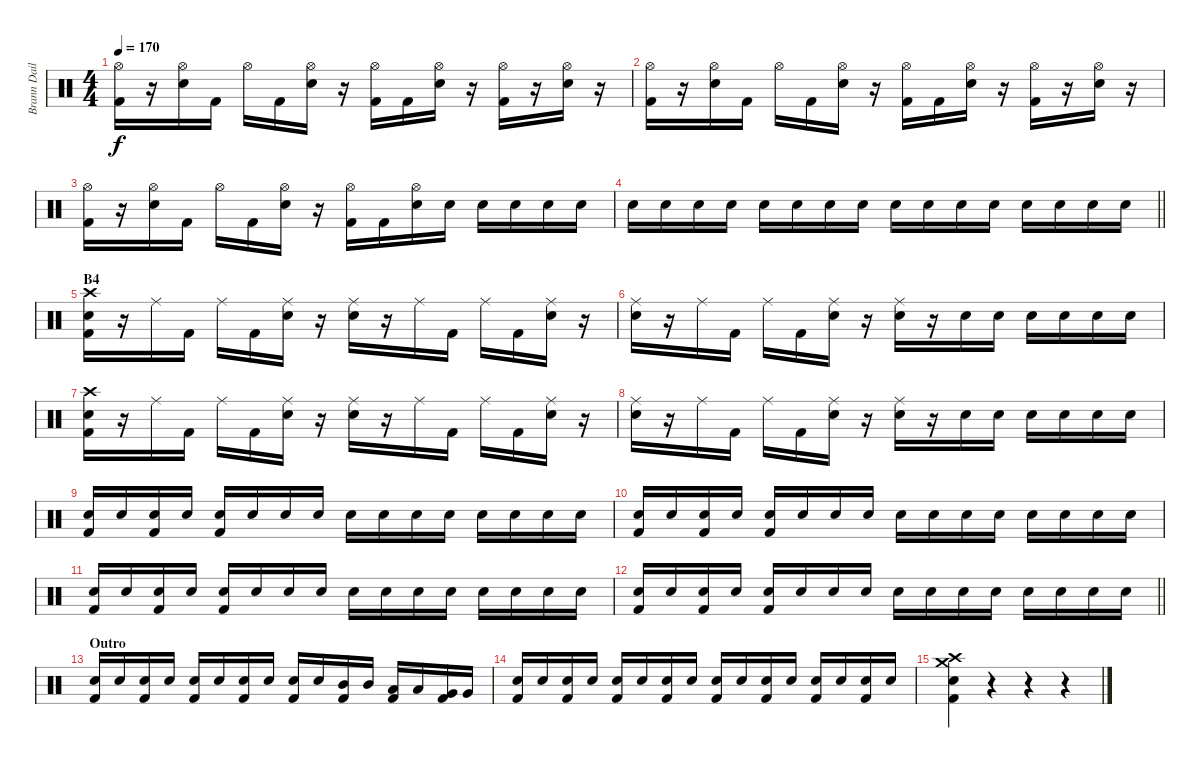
\track ("Brann Dailor" "Brann Dail") {instrument percussion}
\staff {score}
\articulation defaults
\ts (4 4)
\tempo 170
\clef neutral
\ks c
("Hi-Hat (open)" "Kick (hit) 2").16{dy f} r.16 ("Hi-Hat (open)" "Electric Snare (hit)").16 "Kick (hit) 2".16 "Hi-Hat (open)".16 "Kick (hit) 2".16 ("Hi-Hat (open)" "Electric Snare (hit)").16 r.16 ("Hi-Hat (open)" "Kick (hit) 2").16 "Kick (hit) 2".16 ("Hi-Hat (open)" "Electric Snare (hit)").16 r.16 ("Hi-Hat (open)" "Kick (hit) 2").16 r.16 ("Hi-Hat (open)" "Electric Snare (hit)").16 r.16 |
("Hi-Hat (open)" "Kick (hit) 2").16 r.16 ("Hi-Hat (open)" "Electric Snare (hit)").16 "Kick (hit) 2".16 "Hi-Hat (open)".16 "Kick (hit) 2".16 ("Hi-Hat (open)" "Electric Snare (hit)").16 r.16 ("Hi-Hat (open)" "Kick (hit) 2").16 "Kick (hit) 2".16 ("Hi-Hat (open)" "Electric Snare (hit)").16 r.16 ("Hi-Hat (open)" "Kick (hit) 2").16 r.16 ("Hi-Hat (open)" "Electric Snare (hit)").16 r.16 |
("Hi-Hat (open)" "Kick (hit) 2").16 r.16 ("Hi-Hat (open)" "Electric Snare (hit)").16 "Kick (hit) 2".16 "Hi-Hat (open)".16 "Kick (hit) 2".16 ("Hi-Hat (open)" "Electric Snare (hit)").16 r.16 ("Hi-Hat (open)" "Kick (hit) 2").16 "Kick (hit) 2".16 ("Hi-Hat (open)" "Electric Snare (hit)").16 "Electric Snare (hit)".16 "Electric Snare (hit)".16 "Electric Snare (hit)".16 "Electric Snare (hit)".16 "Electric Snare (hit)".16 |
\barLineRight lightlight "Electric Snare (hit)".16 "Electric Snare (hit)".16 "Electric Snare (hit)".16 "Electric Snare (hit)".16 "Electric Snare (hit)".16 "Electric Snare (hit)".16 "Electric Snare (hit)".16 "Electric Snare (hit)".16 "Electric Snare (hit)".16 "Electric Snare (hit)".16 "Electric Snare (hit)".16 "Electric Snare (hit)".16 "Electric Snare (hit)".16 "Electric Snare (hit)".16 "Electric Snare (hit)".16 "Electric Snare (hit)".16
|
\section ("" "B4")
("Crash high (hit)" "Electric Snare (hit)" "Kick (hit) 2").16 r.16 "Ride (middle)".16 "Kick (hit) 2".16 "Ride (middle)".16 "Kick (hit) 2".16 ("Ride (middle)" "Electric Snare (hit)").16 r.16 ("Ride (middle)" "Electric Snare (hit)").16 r.16 "Ride (middle)".16 "Kick (hit) 2".16 "Ride (middle)".16 "Kick (hit) 2".16 ("Ride (middle)" "Electric Snare (hit)").16 r.16 |
("Ride (middle)" "Electric Snare (hit)").16 r.16 "Ride (middle)".16 "Kick (hit) 2".16 "Ride (middle)".16 "Kick (hit) 2".16 ("Ride (middle)" "Electric Snare (hit)").16 r.16 ("Ride (middle)" "Electric Snare (hit)").16 r.16 "Electric Snare (hit)".16 "Electric Snare (hit)".16 "Electric Snare (hit)".16 "Electric Snare (hit)".16 "Electric Snare (hit)".16 "Electric Snare (hit)".16 |
("Crash high (hit)" "Electric Snare (hit)" "Kick (hit) 2").16 r.16 "Ride (middle)".16 "Kick (hit) 2".16 "Ride (middle)".16 "Kick (hit) 2".16 ("Ride (middle)" "Electric Snare (hit)").16 r.16 ("Ride (middle)" "Electric Snare (hit)").16 r.16 "Ride (middle)".16 "Kick (hit) 2".16 "Ride (middle)".16 "Kick (hit) 2".16 ("Ride (middle)" "Electric Snare (hit)").16 r.16 |
("Ride (middle)" "Electric Snare (hit)").16 r.16 "Ride (middle)".16 "Kick (hit) 2".16 "Ride (middle)".16 "Kick (hit) 2".16 ("Ride (middle)" "Electric Snare (hit)").16 r.16 ("Ride (middle)" "Electric Snare (hit)").16 r.16 "Electric Snare (hit)".16 "Electric Snare (hit)".16 "Electric Snare (hit)".16 "Electric Snare (hit)".16 "Electric Snare (hit)".16 "Electric Snare (hit)".16 |
("Electric Snare (hit)" "Kick (hit) 2").16 "Electric Snare (hit)".16 ("Electric Snare (hit)" "Kick (hit) 2").16 "Electric Snare (hit)".16 ("Electric Snare (hit)" "Kick (hit) 2").16 "Electric Snare (hit)".16 "Electric Snare (hit)".16 "Electric Snare (hit)".16 "Electric Snare (hit)".16 "Electric Snare (hit)".16 "Electric Snare (hit)".16 "Electric Snare (hit)".16 "Electric Snare (hit)".16 "Electric Snare (hit)".16 "Electric Snare (hit)".16 "Electric Snare (hit)".16 |
("Electric Snare (hit)" "Kick (hit) 2").16 "Electric Snare (hit)".16 ("Electric Snare (hit)" "Kick (hit) 2").16 "Electric Snare (hit)".16 ("Electric Snare (hit)" "Kick (hit) 2").16 "Electric Snare (hit)".16 "Electric Snare (hit)".16 "Electric Snare (hit)".16 "Electric Snare (hit)".16 "Electric Snare (hit)".16 "Electric Snare (hit)".16 "Electric Snare (hit)".16 "Electric Snare (hit)".16 "Electric Snare (hit)".16 "Electric Snare (hit)".16 "Electric Snare (hit)".16 |
("Electric Snare (hit)" "Kick (hit) 2").16 "Electric Snare (hit)".16 ("Electric Snare (hit)" "Kick (hit) 2").16 "Electric Snare (hit)".16 ("Electric Snare (hit)" "Kick (hit) 2").16 "Electric Snare (hit)".16 "Electric Snare (hit)".16 "Electric Snare (hit)".16 "Electric Snare (hit)".16 "Electric Snare (hit)".16 "Electric Snare (hit)".16 "Electric Snare (hit)".16 "Electric Snare (hit)".16 "Electric Snare (hit)".16 "Electric Snare (hit)".16 "Electric Snare (hit)".16 |
\barLineRight lightlight
("Electric Snare (hit)" "Kick (hit) 2").16 "Electric Snare (hit)".16 ("Electric Snare (hit)" "Kick (hit) 2").16 "Electric Snare (hit)".16 ("Electric Snare (hit)" "Kick (hit) 2").16 "Electric Snare (hit)".16 "Electric Snare (hit)".16 "Electric Snare (hit)".16 "Electric Snare (hit)".16 "Electric Snare (hit)".16 "Electric Snare (hit)".16 "Electric Snare (hit)".16 "Electric Snare (hit)".16 "Electric Snare (hit)".16 "Electric Snare (hit)".16 "Electric Snare (hit)".16 |
\section ("" "Outro")
("Electric Snare (hit)" "Kick (hit) 2").16 "Electric Snare (hit)".16 ("Electric Snare (hit)" "Kick (hit) 2").16 "Electric Snare (hit)".16 ("Electric Snare (hit)" "Kick (hit) 2").16 "Electric Snare (hit)".16 ("Electric Snare (hit)" "Kick (hit) 2").16 "Electric Snare (hit)".16 ("Electric Snare (hit)" "Kick (hit) 2").16 "Electric Snare (hit)".16 ("Mid Tom (hit)" "Kick (hit) 2").16 "Mid Tom (hit)".16 ("Low Tom (hit)" "Kick (hit) 2").16 "Low Tom (hit)".16 ("Very Low Tom (hit)" "Kick (hit) 2").16 "Very Low Tom (hit)".16 |
("Electric Snare (hit)" "Kick (hit) 2").16 "Electric Snare (hit)".16 ("Electric Snare (hit)" "Kick (hit) 2").16 "Electric Snare (hit)".16 ("Electric Snare (hit)" "Kick (hit) 2").16 "Electric Snare (hit)".16 ("Electric Snare (hit)" "Kick (hit) 2").16 "Electric Snare (hit)".16 ("Electric Snare (hit)" "Kick (hit) 2").16 "Electric Snare (hit)".16 ("Electric Snare (hit)" "Kick (hit) 2").16 "Electric Snare (hit)".16 ("Electric Snare (hit)" "Kick (hit) 2").16 "Electric Snare (hit)".16 ("Electric Snare (hit)" "Kick (hit) 2").16 "Electric Snare (hit)".16 |
("Crash high (hit)" "Crash medium (hit)" "Electric Snare (hit)" "Kick (hit) 2").4 r.4 r.4 r.4
